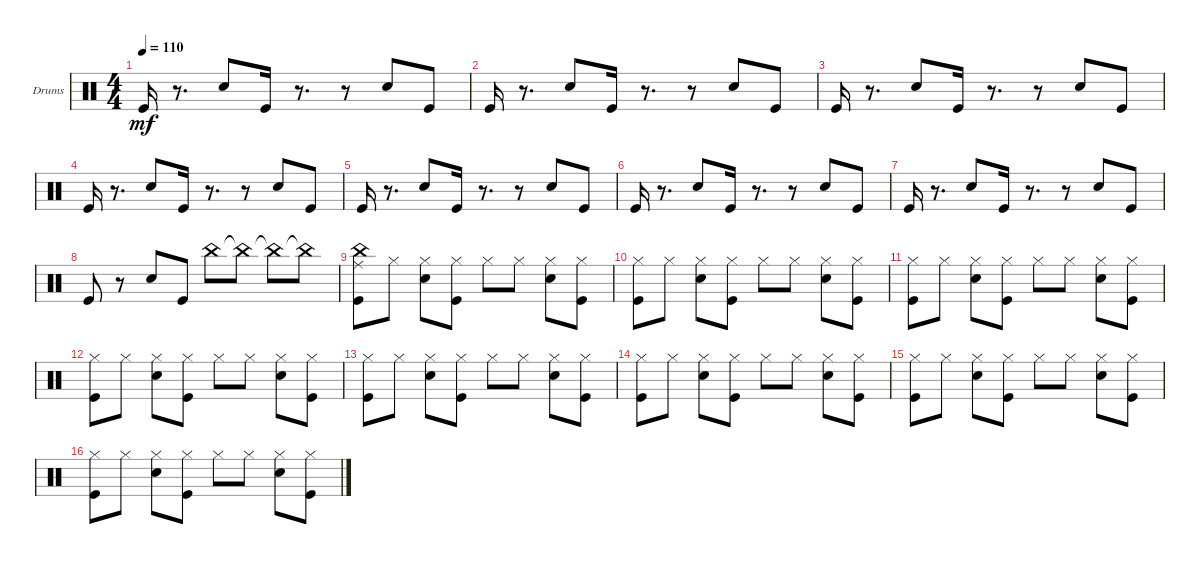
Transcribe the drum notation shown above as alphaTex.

\defaultSystemsLayout 4
\bracketExtendMode groupsimilarinstruments
\firstSystemTrackNameOrientation horizontal
\otherSystemsTrackNameOrientation horizontal
\track ("Drumkit" "Drums") {instrument percussion}
\staff {score}
\articulation defaults
\ts (4 4)
\tempo 110
\clef neutral
\ks c "Kick (hit)".16{dy mf}
r.8{d} "Snare (hit) 2".8 "Kick (hit)".16 r.8{d} r.8 "Snare (hit) 2".8 "Kick (hit)".8 |
"Kick (hit)".16 r.8{d} "Snare (hit) 2".8 "Kick (hit)".16 r.8{d} r.8 "Snare (hit) 2".8 "Kick (hit)".8 |
"Kick (hit)".16 r.8{d} "Snare (hit) 2".8 "Kick (hit)".16 r.8{d} r.8 "Snare (hit) 2".8 "Kick (hit)".8 |
"Kick (hit)".16 r.8{d} "Snare (hit) 2".8 "Kick (hit)".16 r.8{d} r.8 "Snare (hit) 2".8 "Kick (hit)".8 |
"Kick (hit)".16 r.8{d} "Snare (hit) 2".8 "Kick (hit)".16 r.8{d} r.8 "Snare (hit) 2".8 "Kick (hit)".8 |
"Kick (hit)".16 r.8{d} "Snare (hit) 2".8 "Kick (hit)".16 r.8{d} r.8 "Snare (hit) 2".8 "Kick (hit)".8 |
"Kick (hit)".16 r.8{d} "Snare (hit) 2".8 "Kick (hit)".16 r.8{d} r.8 "Snare (hit) 2".8 "Kick (hit)".8 |
"Kick (hit)".8 r.8 "Snare (hit) 2".8 "Kick (hit)".8 "China (hit)".8 "China (hit)"{t}.8 "China (hit)"{t}.8 "China (hit)"{t}.8 |
("Kick (hit)" "Ride (middle)" "China (hit)").8 "Hi-Hat (closed)".8 ("Snare (hit) 2" "Hi-Hat (closed)").8 ("Kick (hit)" "Hi-Hat (closed)").8 "Hi-Hat (closed)".8 "Hi-Hat (closed)".8 ("Snare (hit) 2" "Hi-Hat (closed)").8 ("Hi-Hat (closed)" "Kick (hit)").8 |
("Kick (hit)" "Hi-Hat (closed)").8 "Hi-Hat (closed)".8 ("Snare (hit) 2" "Hi-Hat (closed)").8 ("Kick (hit)" "Hi-Hat (closed)").8 "Hi-Hat (closed)".8 "Hi-Hat (closed)".8 ("Snare (hit) 2" "Hi-Hat (closed)").8 ("Hi-Hat (closed)" "Kick (hit)").8 |
("Kick (hit)" "Hi-Hat (closed)").8 "Hi-Hat (closed)".8 ("Snare (hit) 2" "Hi-Hat (closed)").8 ("Kick (hit)" "Hi-Hat (closed)").8 "Hi-Hat (closed)".8 "Hi-Hat (closed)".8 ("Snare (hit) 2" "Hi-Hat (closed)").8 ("Hi-Hat (closed)" "Kick (hit)").8 |
("Kick (hit)" "Hi-Hat (closed)").8 "Hi-Hat (closed)".8 ("Snare (hit) 2" "Hi-Hat (closed)").8 ("Kick (hit)" "Hi-Hat (closed)").8 "Hi-Hat (closed)".8 "Hi-Hat (closed)".8 ("Snare (hit) 2" "Hi-Hat (closed)").8 ("Hi-Hat (closed)" "Kick (hit)").8 |
("Kick (hit)" "Hi-Hat (closed)").8 "Hi-Hat (closed)".8 ("Snare (hit) 2" "Hi-Hat (closed)").8 ("Kick (hit)" "Hi-Hat (closed)").8 "Hi-Hat (closed)".8 "Hi-Hat (closed)".8 ("Snare (hit) 2" "Hi-Hat (closed)").8 ("Hi-Hat (closed)" "Kick (hit)").8 |
("Kick (hit)" "Hi-Hat (closed)").8 "Hi-Hat (closed)".8 ("Snare (hit) 2" "Hi-Hat (closed)").8 ("Kick (hit)" "Hi-Hat (closed)").8 "Hi-Hat (closed)".8 "Hi-Hat (closed)".8 ("Snare (hit) 2" "Hi-Hat (closed)").8 ("Hi-Hat (closed)" "Kick (hit)").8 |
("Kick (hit)" "Hi-Hat (closed)").8 "Hi-Hat (closed)".8 ("Snare (hit) 2" "Hi-Hat (closed)").8 ("Kick (hit)" "Hi-Hat (closed)").8 "Hi-Hat (closed)".8 "Hi-Hat (closed)".8 ("Snare (hit) 2" "Hi-Hat (closed)").8 ("Hi-Hat (closed)" "Kick (hit)").8 |
("Kick (hit)" "Hi-Hat (closed)").8 "Hi-Hat (closed)".8 ("Snare (hit) 2" "Hi-Hat (closed)").8 ("Kick (hit)" "Hi-Hat (closed)").8 "Hi-Hat (closed)".8 "Hi-Hat (closed)".8 ("Snare (hit) 2" "Hi-Hat (closed)").8 ("Hi-Hat (closed)" "Kick (hit)").8
